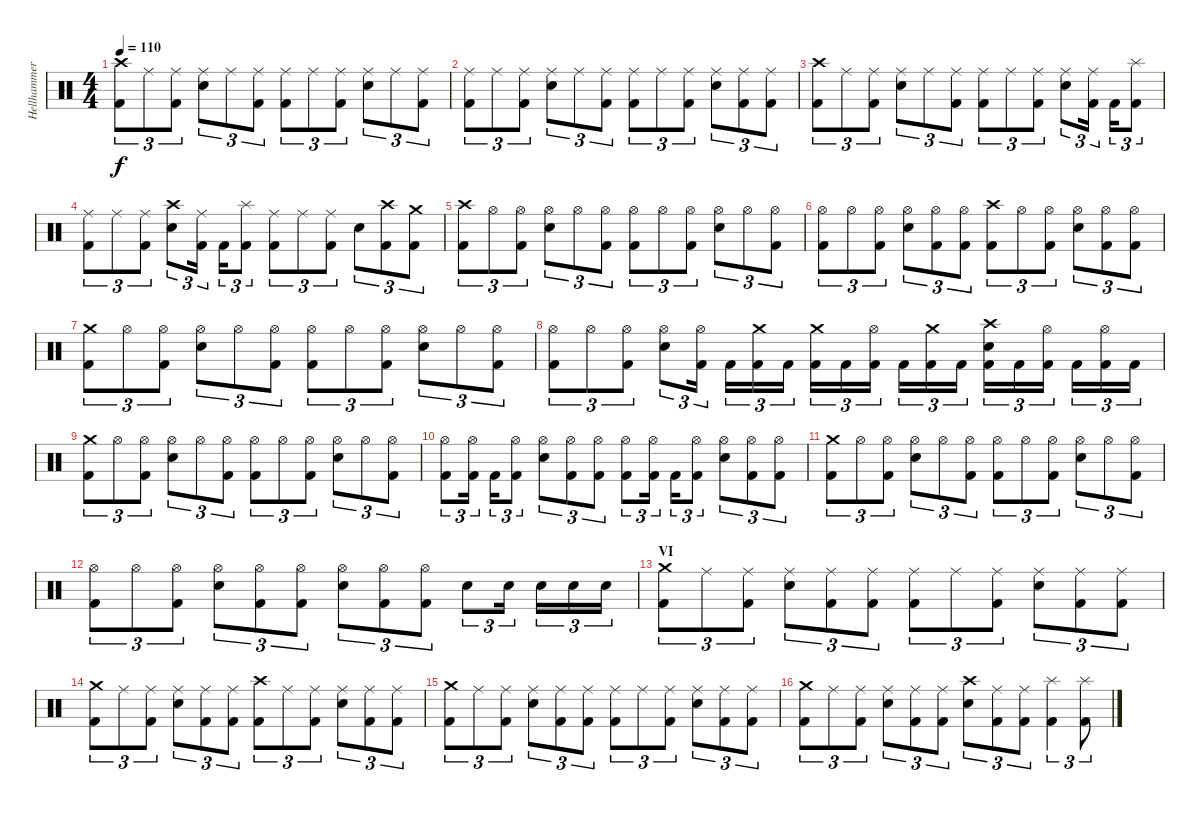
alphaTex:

\track ("Hellhammer" "Hellhammer") {instrument percussion}
\staff {score}
\articulation defaults
\ts (4 4)
\tempo 110
\clef neutral
\ks c
("Kick (hit) 2" "Crash high (hit)").8{tu (3 2) dy f} "Ride (middle)".8{tu (3 2)} ("Kick (hit) 2" "Ride (middle)").8{tu (3 2)} ("Electric Snare (hit)" "Ride (middle)").8{tu (3 2)} "Ride (middle)".8{tu (3 2)} ("Kick (hit) 2" "Ride (middle)").8{tu (3 2)} ("Kick (hit) 2" "Ride (middle)").8{tu (3 2)} "Ride (middle)".8{tu (3 2)} ("Kick (hit) 2" "Ride (middle)").8{tu (3 2)} ("Electric Snare (hit)" "Ride (middle)").8{tu (3 2)} "Ride (middle)".8{tu (3 2)} ("Kick (hit) 2" "Ride (middle)").8{tu (3 2)} |
("Kick (hit) 2" "Ride (middle)").8{tu (3 2)} "Ride (middle)".8{tu (3 2)} ("Kick (hit) 2" "Ride (middle)").8{tu (3 2)} ("Electric Snare (hit)" "Ride (middle)").8{tu (3 2)} "Ride (middle)".8{tu (3 2)} ("Kick (hit) 2" "Ride (middle)").8{tu (3 2)} ("Kick (hit) 2" "Ride (middle)").8{tu (3 2)} "Ride (middle)".8{tu (3 2)} ("Kick (hit) 2" "Ride (middle)").8{tu (3 2)} ("Electric Snare (hit)" "Ride (middle)").8{tu (3 2)} ("Kick (hit) 2" "Ride (middle)").8{tu (3 2)} ("Kick (hit) 2" "Ride (middle)").8{tu (3 2)} |
("Kick (hit) 2" "Crash high (hit)").8{tu (3 2)} "Ride (middle)".8{tu (3 2)} ("Kick (hit) 2" "Ride (middle)").8{tu (3 2)} ("Electric Snare (hit)" "Ride (middle)").8{tu (3 2)} "Ride (middle)".8{tu (3 2)} ("Kick (hit) 2" "Ride (middle)").8{tu (3 2)} ("Kick (hit) 2" "Ride (middle)").8{tu (3 2)} "Ride (middle)".8{tu (3 2)} ("Kick (hit) 2" "Ride (middle)").8{tu (3 2)} ("Electric Snare (hit)" "Ride (middle)").8{tu (3 2)} ("Kick (hit) 2" "Ride (middle)").16{tu (3 2)} "Kick (hit) 2".16{tu (3 2)} ("Kick (hit) 2" "Splash (hit)").8{tu (3 2)} |
("Kick (hit) 2" "Ride (middle)").8{tu (3 2)} "Ride (middle)".8{tu (3 2)} ("Kick (hit) 2" "Ride (middle)").8{tu (3 2)} ("Electric Snare (hit)" "Crash high (hit)").8{tu (3 2)} ("Kick (hit) 2" "Ride (middle)").16{tu (3 2)} "Kick (hit) 2".16{tu (3 2)} ("Kick (hit) 2" "Splash (hit)").8{tu (3 2)} ("Kick (hit) 2" "Ride (middle)").8{tu (3 2)} "Ride (middle)".8{tu (3 2)} ("Kick (hit) 2" "Ride (middle)").8{tu (3 2)} "Electric Snare (hit)".8{tu (3 2)} ("Kick (hit) 2" "Crash high (hit)").8{tu (3 2)} ("Kick (hit) 2" "Crash medium (hit)").8{tu (3 2)} |
("Kick (hit) 2" "Crash high (hit)").8{tu (3 2)} "Hi-Hat (open)".8{tu (3 2)} ("Kick (hit) 2" "Hi-Hat (open)").8{tu (3 2)} ("Electric Snare (hit)" "Hi-Hat (open)").8{tu (3 2)} "Hi-Hat (open)".8{tu (3 2)} ("Kick (hit) 2" "Hi-Hat (open)").8{tu (3 2)} ("Kick (hit) 2" "Hi-Hat (open)").8{tu (3 2)} "Hi-Hat (open)".8{tu (3 2)} ("Kick (hit) 2" "Hi-Hat (open)").8{tu (3 2)} ("Electric Snare (hit)" "Hi-Hat (open)").8{tu (3 2)} "Hi-Hat (open)".8{tu (3 2)} ("Kick (hit) 2" "Hi-Hat (open)").8{tu (3 2)} |
("Kick (hit) 2" "Hi-Hat (open)").8{tu (3 2)} "Hi-Hat (open)".8{tu (3 2)} ("Kick (hit) 2" "Hi-Hat (open)").8{tu (3 2)} ("Electric Snare (hit)" "Hi-Hat (open)").8{tu (3 2)} ("Kick (hit) 2" "Hi-Hat (open)").8{tu (3 2)} ("Kick (hit) 2" "Hi-Hat (open)").8{tu (3 2)} ("Kick (hit) 2" "Crash high (hit)").8{tu (3 2)} "Hi-Hat (open)".8{tu (3 2)} ("Kick (hit) 2" "Hi-Hat (open)").8{tu (3 2)} ("Electric Snare (hit)" "Hi-Hat (open)").8{tu (3 2)} ("Kick (hit) 2" "Hi-Hat (open)").8{tu (3 2)} ("Kick (hit) 2" "Hi-Hat (open)").8{tu (3 2)} |
("Kick (hit) 2" "Crash medium (hit)").8{tu (3 2)} "Hi-Hat (open)".8{tu (3 2)} ("Kick (hit) 2" "Hi-Hat (open)").8{tu (3 2)} ("Electric Snare (hit)" "Hi-Hat (open)").8{tu (3 2)} "Hi-Hat (open)".8{tu (3 2)} ("Kick (hit) 2" "Hi-Hat (open)").8{tu (3 2)} ("Kick (hit) 2" "Hi-Hat (open)").8{tu (3 2)} "Hi-Hat (open)".8{tu (3 2)} ("Kick (hit) 2" "Hi-Hat (open)").8{tu (3 2)} ("Electric Snare (hit)" "Hi-Hat (open)").8{tu (3 2)} "Hi-Hat (open)".8{tu (3 2)} ("Kick (hit) 2" "Hi-Hat (open)").8{tu (3 2)} |
("Kick (hit) 2" "Hi-Hat (open)").8{tu (3 2)} "Hi-Hat (open)".8{tu (3 2)} ("Kick (hit) 2" "Hi-Hat (open)").8{tu (3 2)} ("Electric Snare (hit)" "Hi-Hat (open)").8{tu (3 2)} ("Kick (hit) 2" "Hi-Hat (open)").16{tu (3 2)} "Kick (hit) 2".16{tu (3 2)} ("Kick (hit) 2" "Crash medium (hit)").16{tu (3 2)} "Kick (hit) 2".16{tu (3 2)} ("Kick (hit) 2" "Crash medium (hit)").16{tu (3 2)} "Kick (hit) 2".16{tu (3 2)} ("Kick (hit) 2" "Hi-Hat (open)").16{tu (3 2)} "Kick (hit) 2".16{tu (3 2)} ("Kick (hit) 2" "Crash medium (hit)").16{tu (3 2)} "Kick (hit) 2".16{tu (3 2)} ("Kick (hit) 2" "Electric Snare (hit)" "Crash high (hit)").16{tu (3 2)} "Kick (hit) 2".16{tu (3 2)} ("Kick (hit) 2" "Hi-Hat (open)").16{tu (3 2)} "Kick (hit) 2".16{tu (3 2)} ("Kick (hit) 2" "Hi-Hat (open)").16{tu (3 2)} "Kick (hit) 2".16{tu (3 2)} |
("Kick (hit) 2" "Crash medium (hit)").8{tu (3 2)} "Hi-Hat (open)".8{tu (3 2)} ("Kick (hit) 2" "Hi-Hat (open)").8{tu (3 2)} ("Electric Snare (hit)" "Hi-Hat (open)").8{tu (3 2)} "Hi-Hat (open)".8{tu (3 2)} ("Kick (hit) 2" "Hi-Hat (open)").8{tu (3 2)} ("Kick (hit) 2" "Hi-Hat (open)").8{tu (3 2)} "Hi-Hat (open)".8{tu (3 2)} ("Kick (hit) 2" "Hi-Hat (open)").8{tu (3 2)} ("Electric Snare (hit)" "Hi-Hat (open)").8{tu (3 2)} "Hi-Hat (open)".8{tu (3 2)} ("Kick (hit) 2" "Hi-Hat (open)").8{tu (3 2)} |
("Kick (hit) 2" "Hi-Hat (open)").8{tu (3 2)} ("Kick (hit) 2" "Hi-Hat (open)").16{tu (3 2)} "Kick (hit) 2".16{tu (3 2)} ("Kick (hit) 2" "Hi-Hat (open)").8{tu (3 2)} ("Electric Snare (hit)" "Hi-Hat (open)").8{tu (3 2)} ("Kick (hit) 2" "Hi-Hat (open)").8{tu (3 2)} ("Kick (hit) 2" "Hi-Hat (open)").8{tu (3 2)} ("Kick (hit) 2" "Hi-Hat (open)").8{tu (3 2)} ("Kick (hit) 2" "Hi-Hat (open)").16{tu (3 2)} "Kick (hit) 2".16{tu (3 2)} ("Kick (hit) 2" "Hi-Hat (open)").8{tu (3 2)} ("Electric Snare (hit)" "Hi-Hat (open)").8{tu (3 2)} ("Kick (hit) 2" "Hi-Hat (open)").8{tu (3 2)} ("Kick (hit) 2" "Hi-Hat (open)").8{tu (3 2)} |
("Kick (hit) 2" "Crash medium (hit)").8{tu (3 2)} "Hi-Hat (open)".8{tu (3 2)} ("Kick (hit) 2" "Hi-Hat (open)").8{tu (3 2)} ("Electric Snare (hit)" "Hi-Hat (open)").8{tu (3 2)} "Hi-Hat (open)".8{tu (3 2)} ("Kick (hit) 2" "Hi-Hat (open)").8{tu (3 2)} ("Kick (hit) 2" "Hi-Hat (open)").8{tu (3 2)} "Hi-Hat (open)".8{tu (3 2)} ("Kick (hit) 2" "Hi-Hat (open)").8{tu (3 2)} ("Electric Snare (hit)" "Hi-Hat (open)").8{tu (3 2)} "Hi-Hat (open)".8{tu (3 2)} ("Kick (hit) 2" "Hi-Hat (open)").8{tu (3 2)} |
("Kick (hit) 2" "Hi-Hat (open)").8{tu (3 2)} "Hi-Hat (open)".8{tu (3 2)} ("Kick (hit) 2" "Hi-Hat (open)").8{tu (3 2)} ("Electric Snare (hit)" "Hi-Hat (open)").8{tu (3 2)} ("Kick (hit) 2" "Hi-Hat (open)").8{tu (3 2)} ("Kick (hit) 2" "Hi-Hat (open)").8{tu (3 2)} ("Electric Snare (hit)" "Hi-Hat (open)").8{tu (3 2)} ("Kick (hit) 2" "Hi-Hat (open)").8{tu (3 2)} ("Kick (hit) 2" "Hi-Hat (open)").8{tu (3 2)} "Electric Snare (hit)".8{tu (3 2)} "Electric Snare (hit)".16{tu (3 2)} "Electric Snare (hit)".16{tu (3 2)} "Electric Snare (hit)".16{tu (3 2)} "Electric Snare (hit)".16{tu (3 2)} |
\section ("" "VI")
("Kick (hit) 2" "Crash medium (hit)").8{tu (3 2)} "Ride (middle)".8{tu (3 2)} ("Kick (hit) 2" "Ride (middle)").8{tu (3 2)} ("Electric Snare (hit)" "Ride (middle)").8{tu (3 2)} ("Kick (hit) 2" "Ride (middle)").8{tu (3 2)} ("Kick (hit) 2" "Ride (middle)").8{tu (3 2)} ("Kick (hit) 2" "Ride (middle)").8{tu (3 2)} "Ride (middle)".8{tu (3 2)} ("Kick (hit) 2" "Ride (middle)").8{tu (3 2)} ("Electric Snare (hit)" "Ride (middle)").8{tu (3 2)} ("Kick (hit) 2" "Ride (middle)").8{tu (3 2)} ("Kick (hit) 2" "Ride (middle)").8{tu (3 2)} |
("Kick (hit) 2" "Crash medium (hit)").8{tu (3 2)} "Ride (middle)".8{tu (3 2)} ("Kick (hit) 2" "Ride (middle)").8{tu (3 2)} ("Electric Snare (hit)" "Ride (middle)").8{tu (3 2)} ("Kick (hit) 2" "Ride (middle)").8{tu (3 2)} ("Kick (hit) 2" "Ride (middle)").8{tu (3 2)} ("Kick (hit) 2" "Crash high (hit)").8{tu (3 2)} "Ride (middle)".8{tu (3 2)} ("Kick (hit) 2" "Ride (middle)").8{tu (3 2)} ("Electric Snare (hit)" "Ride (middle)").8{tu (3 2)} ("Kick (hit) 2" "Ride (middle)").8{tu (3 2)} ("Kick (hit) 2" "Ride (middle)").8{tu (3 2)} |
("Kick (hit) 2" "Crash medium (hit)").8{tu (3 2)} "Ride (middle)".8{tu (3 2)} ("Kick (hit) 2" "Ride (middle)").8{tu (3 2)} ("Electric Snare (hit)" "Ride (middle)").8{tu (3 2)} ("Kick (hit) 2" "Ride (middle)").8{tu (3 2)} ("Kick (hit) 2" "Ride (middle)").8{tu (3 2)} ("Kick (hit) 2" "Ride (middle)").8{tu (3 2)} "Ride (middle)".8{tu (3 2)} ("Kick (hit) 2" "Ride (middle)").8{tu (3 2)} ("Electric Snare (hit)" "Ride (middle)").8{tu (3 2)} ("Kick (hit) 2" "Ride (middle)").8{tu (3 2)} ("Kick (hit) 2" "Ride (middle)").8{tu (3 2)} |
("Kick (hit) 2" "Crash medium (hit)").8{tu (3 2)} "Ride (middle)".8{tu (3 2)} ("Kick (hit) 2" "Ride (middle)").8{tu (3 2)} ("Electric Snare (hit)" "Ride (middle)").8{tu (3 2)} ("Kick (hit) 2" "Ride (middle)").8{tu (3 2)} ("Kick (hit) 2" "Ride (middle)").8{tu (3 2)} ("Electric Snare (hit)" "Crash high (hit)").8{tu (3 2)} ("Kick (hit) 2" "Ride (middle)").8{tu (3 2)} ("Kick (hit) 2" "Ride (middle)").8{tu (3 2)} ("Kick (hit) 2" "Splash (hit)").4{tu (3 2)} ("Kick (hit) 2" "Splash (hit)").8{tu (3 2)}
